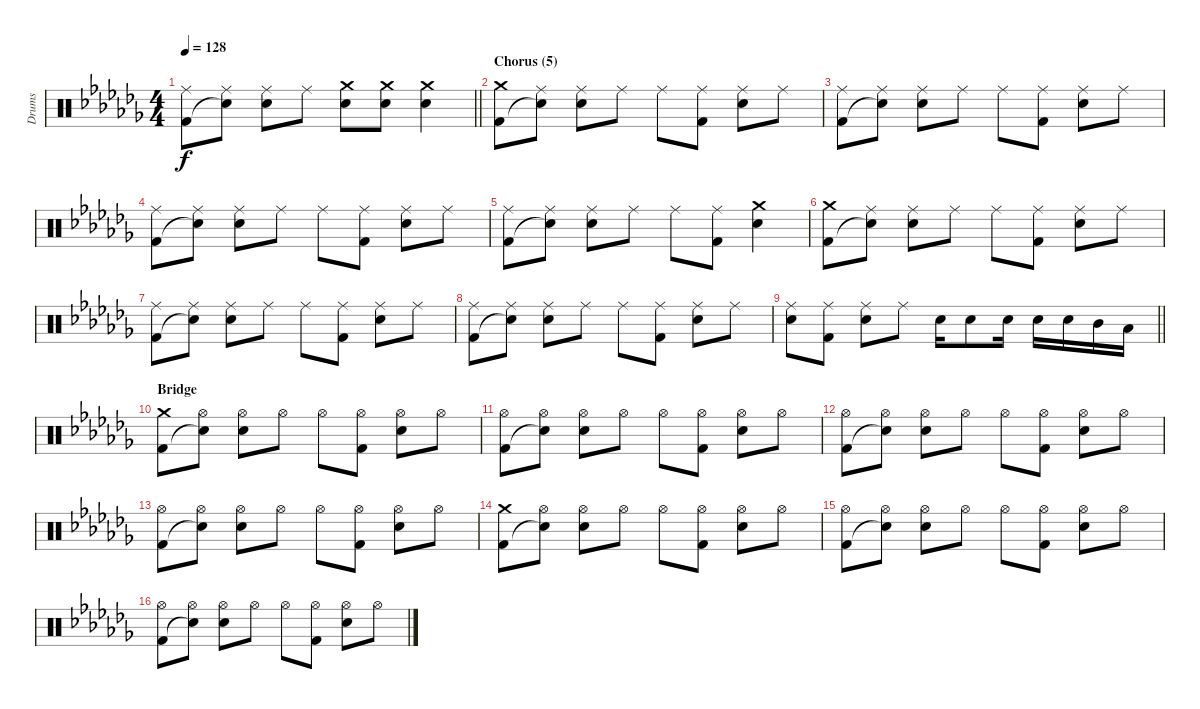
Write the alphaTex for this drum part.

\track ("Drums" "Drums") {instrument percussion}
\staff {score}
\articulation defaults
\ts (4 4)
\tempo 128
\clef neutral
\barLineRight lightlight
\ks abminor
("Ride (middle)" "Kick (hit) 2").8{dy f} ("Ride (middle)" "Snare (hit)"{t}).8 ("Ride (middle)" "Electric Snare (hit)").8 "Ride (middle)".8 ("Crash medium (hit)" "Electric Snare (hit)").8 ("Crash medium (hit)" "Electric Snare (hit)").8 ("Crash medium (hit)" "Electric Snare (hit)").4 |
\section ("" "Chorus (5)")
("Crash medium (hit)" "Kick (hit) 2").8 ("Ride (middle)" "Snare (hit)"{t}).8 ("Ride (middle)" "Electric Snare (hit)").8 "Ride (middle)".8 "Ride (middle)".8 ("Ride (middle)" "Kick (hit) 2").8 ("Ride (middle)" "Electric Snare (hit)").8 "Ride (middle)".8 |
("Ride (middle)" "Kick (hit) 2").8 ("Ride (middle)" "Snare (hit)"{t}).8 ("Ride (middle)" "Electric Snare (hit)").8 "Ride (middle)".8 "Ride (middle)".8 ("Ride (middle)" "Kick (hit) 2").8 ("Ride (middle)" "Electric Snare (hit)").8 "Ride (middle)".8 |
("Ride (middle)" "Kick (hit) 2").8 ("Ride (middle)" "Snare (hit)"{t}).8 ("Ride (middle)" "Electric Snare (hit)").8 "Ride (middle)".8 "Ride (middle)".8 ("Ride (middle)" "Kick (hit) 2").8 ("Ride (middle)" "Electric Snare (hit)").8 "Ride (middle)".8 |
("Ride (middle)" "Kick (hit) 2").8 ("Ride (middle)" "Snare (hit)"{t}).8 ("Ride (middle)" "Electric Snare (hit)").8 "Ride (middle)".8 "Ride (middle)".8 ("Ride (middle)" "Kick (hit) 2").8 ("Crash medium (hit)" "Electric Snare (hit)").4 |
("Crash medium (hit)" "Kick (hit) 2").8 ("Ride (middle)" "Snare (hit)"{t}).8 ("Ride (middle)" "Electric Snare (hit)").8 "Ride (middle)".8 "Ride (middle)".8 ("Ride (middle)" "Kick (hit) 2").8 ("Ride (middle)" "Electric Snare (hit)").8 "Ride (middle)".8 |
("Ride (middle)" "Kick (hit) 2").8 ("Ride (middle)" "Snare (hit)"{t}).8 ("Ride (middle)" "Electric Snare (hit)").8 "Ride (middle)".8 "Ride (middle)".8 ("Ride (middle)" "Kick (hit) 2").8 ("Ride (middle)" "Electric Snare (hit)").8 "Ride (middle)".8 |
("Ride (middle)" "Kick (hit) 2").8 ("Ride (middle)" "Snare (hit)"{t}).8 ("Ride (middle)" "Electric Snare (hit)").8 "Ride (middle)".8 "Ride (middle)".8 ("Ride (middle)" "Kick (hit) 2").8 ("Ride (middle)" "Electric Snare (hit)").8 "Ride (middle)".8 |
\barLineRight lightlight
("Ride (middle)" "Electric Snare (hit)").8 ("Ride (middle)" "Kick (hit) 2").8 ("Ride (middle)" "Electric Snare (hit)").8 "Ride (middle)".8 "Electric Snare (hit)".16 "Electric Snare (hit)".8 "Electric Snare (hit)".16 "Electric Snare (hit)".16 "Electric Snare (hit)".16 "Mid Tom (hit)".16 "Low Floor Tom (hit)".16 |
\section ("" "Bridge")
("Crash medium (hit)" "Kick (hit) 2").8 ("Hi-Hat (open)" "Snare (hit)"{t}).8 ("Hi-Hat (open)" "Electric Snare (hit)").8 "Hi-Hat (open)".8 "Hi-Hat (open)".8 ("Hi-Hat (open)" "Kick (hit) 2").8 ("Hi-Hat (open)" "Electric Snare (hit)").8 "Hi-Hat (open)".8 |
("Hi-Hat (open)" "Kick (hit) 2").8 ("Hi-Hat (open)" "Snare (hit)"{t}).8 ("Hi-Hat (open)" "Electric Snare (hit)").8 "Hi-Hat (open)".8 "Hi-Hat (open)".8 ("Hi-Hat (open)" "Kick (hit) 2").8 ("Hi-Hat (open)" "Electric Snare (hit)").8 "Hi-Hat (open)".8 |
("Hi-Hat (open)" "Kick (hit) 2").8 ("Hi-Hat (open)" "Snare (hit)"{t}).8 ("Hi-Hat (open)" "Electric Snare (hit)").8 "Hi-Hat (open)".8 "Hi-Hat (open)".8 ("Hi-Hat (open)" "Kick (hit) 2").8 ("Hi-Hat (open)" "Electric Snare (hit)").8 "Hi-Hat (open)".8 |
("Hi-Hat (open)" "Kick (hit) 2").8 ("Hi-Hat (open)" "Snare (hit)"{t}).8 ("Hi-Hat (open)" "Electric Snare (hit)").8 "Hi-Hat (open)".8 "Hi-Hat (open)".8 ("Hi-Hat (open)" "Kick (hit) 2").8 ("Hi-Hat (open)" "Electric Snare (hit)").8 "Hi-Hat (open)".8 |
("Crash medium (hit)" "Kick (hit) 2").8 ("Hi-Hat (open)" "Snare (hit)"{t}).8 ("Hi-Hat (open)" "Electric Snare (hit)").8 "Hi-Hat (open)".8 "Hi-Hat (open)".8 ("Hi-Hat (open)" "Kick (hit) 2").8 ("Hi-Hat (open)" "Electric Snare (hit)").8 "Hi-Hat (open)".8 |
("Hi-Hat (open)" "Kick (hit) 2").8 ("Hi-Hat (open)" "Snare (hit)"{t}).8 ("Hi-Hat (open)" "Electric Snare (hit)").8 "Hi-Hat (open)".8 "Hi-Hat (open)".8 ("Hi-Hat (open)" "Kick (hit) 2").8 ("Hi-Hat (open)" "Electric Snare (hit)").8 "Hi-Hat (open)".8 |
("Hi-Hat (open)" "Kick (hit) 2").8 ("Hi-Hat (open)" "Snare (hit)"{t}).8 ("Hi-Hat (open)" "Electric Snare (hit)").8 "Hi-Hat (open)".8 "Hi-Hat (open)".8 ("Hi-Hat (open)" "Kick (hit) 2").8 ("Hi-Hat (open)" "Electric Snare (hit)").8 "Hi-Hat (open)".8
